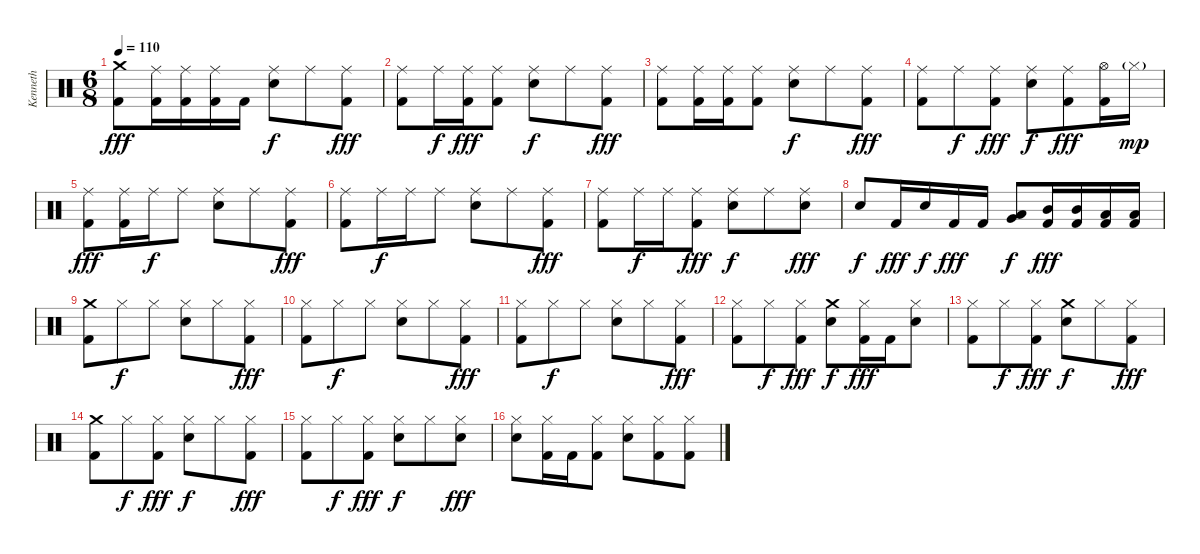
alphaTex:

\track ("Kenneth " "Kenneth ") {instrument percussion}
\staff {score}
\articulation defaults
\ts (6 8)
\tempo 110
\clef neutral
\ks c
("Crash medium (hit)" "Kick (hit) 2").8{dy fff} ("Ride (middle)" "Kick (hit) 2").16 ("Ride (middle)" "Kick (hit) 2").16 ("Ride (middle)" "Kick (hit) 2").16 "Kick (hit) 2".16 ("Ride (middle)" "Electric Snare (hit)").8{dy f} "Ride (middle)".8 ("Ride (middle)" "Kick (hit) 2").8{dy fff} |
("Ride (middle)" "Kick (hit) 2").8 "Ride (middle)".16{dy f} ("Ride (middle)" "Kick (hit) 2").16{dy fff} ("Ride (middle)" "Kick (hit) 2").8 ("Ride (middle)" "Electric Snare (hit)").8{dy f} "Ride (middle)".8 ("Ride (middle)" "Kick (hit) 2").8{dy fff} |
("Ride (middle)" "Kick (hit) 2").8 ("Ride (middle)" "Kick (hit) 2").16 ("Ride (middle)" "Kick (hit) 2").16 ("Ride (middle)" "Kick (hit) 2").8 ("Ride (middle)" "Electric Snare (hit)").8{dy f} "Ride (middle)".8 ("Ride (middle)" "Kick (hit) 2").8{dy fff} |
("Ride (middle)" "Kick (hit) 2").8 "Ride (middle)".8{dy f} ("Ride (middle)" "Kick (hit) 2").8{dy fff} ("Ride (middle)" "Electric Snare (hit)").8{dy f} ("Ride (middle)" "Kick (hit) 2").8{dy fff} ("Hi-Hat (open)" "Kick (hit) 2").16 "Hi-Hat (closed)"{g}.16{dy mp} |
("Ride (middle)" "Kick (hit) 2").8{dy fff} ("Ride (middle)" "Kick (hit) 2").16 "Ride (middle)".16{dy f} "Ride (middle)".8 ("Ride (middle)" "Electric Snare (hit)").8 "Ride (middle)".8 ("Ride (middle)" "Kick (hit) 2").8{dy fff} |
("Ride (middle)" "Kick (hit) 2").8 "Ride (middle)".16{dy f} "Ride (middle)".16 "Ride (middle)".8 ("Ride (middle)" "Electric Snare (hit)").8 "Ride (middle)".8 ("Ride (middle)" "Kick (hit) 2").8{dy fff} |
("Ride (middle)" "Kick (hit) 2").8 "Ride (middle)".16{dy f} "Ride (middle)".16 ("Ride (middle)" "Kick (hit) 2").8{dy fff} ("Ride (middle)" "Electric Snare (hit)").8{dy f} "Ride (middle)".8 ("Ride (middle)" "Electric Snare (hit)").8{dy fff} |
"Electric Snare (hit)".8{dy f} "Kick (hit) 2".16{dy fff} "Electric Snare (hit)".16{dy f} "Kick (hit) 2".16{dy fff} "Kick (hit) 2".16 ("Low Tom (hit)" "Very Low Tom (hit)").8{dy f} ("Mid Tom (hit)" "Kick (hit) 2").16{dy fff} ("Mid Tom (hit)" "Kick (hit) 2").16 ("Low Tom (hit)" "Kick (hit) 2").16 ("Low Tom (hit)" "Kick (hit) 2").16 |
("Crash medium (hit)" "Kick (hit) 2").8 "Hi-Hat (closed)".8{dy f} "Hi-Hat (closed)".8 ("Hi-Hat (closed)" "Electric Snare (hit)").8 "Hi-Hat (closed)".8 ("Hi-Hat (closed)" "Kick (hit) 2").8{dy fff} |
("Hi-Hat (closed)" "Kick (hit) 2").8 "Hi-Hat (closed)".8{dy f} "Hi-Hat (closed)".8 ("Hi-Hat (closed)" "Electric Snare (hit)").8 "Hi-Hat (closed)".8 ("Hi-Hat (closed)" "Kick (hit) 2").8{dy fff} |
("Hi-Hat (closed)" "Kick (hit) 2").8 "Hi-Hat (closed)".8{dy f} "Hi-Hat (closed)".8 ("Hi-Hat (closed)" "Electric Snare (hit)").8 "Hi-Hat (closed)".8 ("Hi-Hat (closed)" "Kick (hit) 2").8{dy fff} |
("Hi-Hat (closed)" "Kick (hit) 2").8 "Hi-Hat (closed)".8{dy f} ("Hi-Hat (closed)" "Kick (hit) 2").8{dy fff} ("Crash medium (hit)" "Electric Snare (hit)").8{dy f} ("Hi-Hat (closed)" "Kick (hit) 2").16{dy fff} "Kick (hit) 2".16 ("Hi-Hat (closed)" "Electric Snare (hit)").8 |
("Hi-Hat (closed)" "Kick (hit) 2").8 "Hi-Hat (closed)".8{dy f} ("Hi-Hat (closed)" "Kick (hit) 2").8{dy fff} ("Crash medium (hit)" "Electric Snare (hit)").8{dy f} "Hi-Hat (closed)".8 ("Hi-Hat (closed)" "Kick (hit) 2").8{dy fff} |
("Crash medium (hit)" "Kick (hit) 2").8 "Hi-Hat (closed)".8{dy f} ("Hi-Hat (closed)" "Kick (hit) 2").8{dy fff} ("Hi-Hat (closed)" "Electric Snare (hit)").8{dy f} "Hi-Hat (closed)".8 ("Hi-Hat (closed)" "Kick (hit) 2").8{dy fff} |
("Hi-Hat (closed)" "Kick (hit) 2").8 "Hi-Hat (closed)".8{dy f} ("Hi-Hat (closed)" "Kick (hit) 2").8{dy fff} ("Hi-Hat (closed)" "Electric Snare (hit)").8{dy f} "Hi-Hat (closed)".8 ("Hi-Hat (closed)" "Electric Snare (hit)").8{dy fff} |
("Hi-Hat (closed)" "Electric Snare (hit)").8 ("Hi-Hat (closed)" "Kick (hit) 2").16 "Kick (hit) 2".16 ("Hi-Hat (closed)" "Kick (hit) 2").8 ("Hi-Hat (closed)" "Electric Snare (hit)").8 ("Hi-Hat (closed)" "Kick (hit) 2").8 ("Hi-Hat (closed)" "Kick (hit) 2").8
